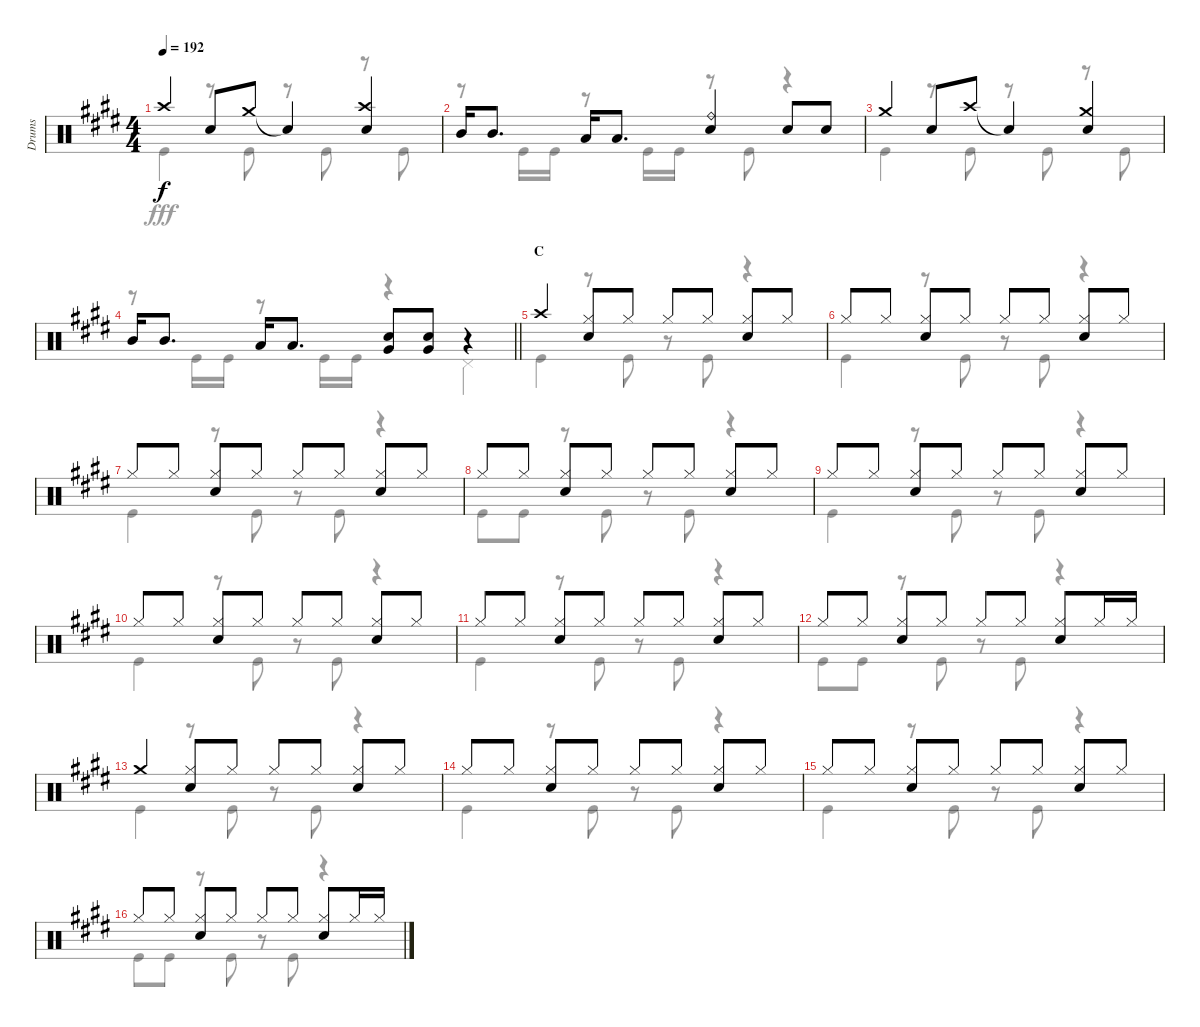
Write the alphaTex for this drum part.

\track ("Drums" "Drums") {instrument percussion}
\staff {score}
\articulation defaults
\voice
\ts (4 4)
\tempo 192
\clef neutral
\ks e "Crash high (hit)".4{dy f} "Snare (hit) 2".8 "Crash medium (hit)".8 "Snare (hit)"{t}.4
("Crash high (hit)" "Snare (hit) 2").4 |
"Mid Tom (hit)".16 "Mid Tom (hit)".8{d} "Low Tom (hit)".16 "Low Tom (hit)".8{d} ("Ride (bell)" "Snare (hit) 2").4 "Snare (hit) 2".8 "Snare (hit) 2".8 |
"Crash medium (hit)".4 "Snare (hit) 2".8 "Crash high (hit)".8 "Snare (hit)"{t}.4 ("Crash medium (hit)" "Snare (hit) 2").4 |
\barLineRight lightlight "Mid Tom (hit)".16 "Mid Tom (hit)".8{d} "Low Tom (hit)".16 "Low Tom (hit)".8{d}
("Snare (hit) 2" "Very Low Tom (hit)").8 ("Snare (hit) 2" "Very Low Tom (hit)").8 r.4 |
\section ("" "C")
"Crash high (hit)".4 ("Hi-Hat (closed)" "Snare (hit) 2").8 "Hi-Hat (closed)".8 "Hi-Hat (closed)".8 "Hi-Hat (closed)".8 ("Hi-Hat (closed)" "Snare (hit) 2").8 "Hi-Hat (closed)".8 |
"Hi-Hat (closed)".8 "Hi-Hat (closed)".8 ("Hi-Hat (closed)" "Snare (hit) 2").8 "Hi-Hat (closed)".8 "Hi-Hat (closed)".8 "Hi-Hat (closed)".8 ("Hi-Hat (closed)" "Snare (hit) 2").8 "Hi-Hat (closed)".8 |
"Hi-Hat (closed)".8 "Hi-Hat (closed)".8 ("Hi-Hat (closed)" "Snare (hit) 2").8 "Hi-Hat (closed)".8 "Hi-Hat (closed)".8 "Hi-Hat (closed)".8 ("Hi-Hat (closed)" "Snare (hit) 2").8 "Hi-Hat (closed)".8 |
"Hi-Hat (closed)".8 "Hi-Hat (closed)".8 ("Hi-Hat (closed)" "Snare (hit) 2").8 "Hi-Hat (closed)".8 "Hi-Hat (closed)".8 "Hi-Hat (closed)".8 ("Hi-Hat (closed)" "Snare (hit) 2").8 "Hi-Hat (closed)".8 |
"Hi-Hat (closed)".8 "Hi-Hat (closed)".8 ("Hi-Hat (closed)" "Snare (hit) 2").8 "Hi-Hat (closed)".8 "Hi-Hat (closed)".8 "Hi-Hat (closed)".8 ("Hi-Hat (closed)" "Snare (hit) 2").8 "Hi-Hat (closed)".8 |
"Hi-Hat (closed)".8 "Hi-Hat (closed)".8 ("Hi-Hat (closed)" "Snare (hit) 2").8 "Hi-Hat (closed)".8 "Hi-Hat (closed)".8 "Hi-Hat (closed)".8 ("Hi-Hat (closed)" "Snare (hit) 2").8 "Hi-Hat (closed)".8 |
"Hi-Hat (closed)".8 "Hi-Hat (closed)".8 ("Hi-Hat (closed)" "Snare (hit) 2").8 "Hi-Hat (closed)".8 "Hi-Hat (closed)".8 "Hi-Hat (closed)".8 ("Hi-Hat (closed)" "Snare (hit) 2").8 "Hi-Hat (closed)".8 |
"Hi-Hat (closed)".8 "Hi-Hat (closed)".8 ("Hi-Hat (closed)" "Snare (hit) 2").8 "Hi-Hat (closed)".8 "Hi-Hat (closed)".8 "Hi-Hat (closed)".8 ("Hi-Hat (closed)" "Snare (hit) 2").8 "Hi-Hat (closed)".16 "Hi-Hat (closed)".16 |
"Crash medium (hit)".4 ("Hi-Hat (closed)" "Snare (hit) 2").8 "Hi-Hat (closed)".8 "Hi-Hat (closed)".8 "Hi-Hat (closed)".8 ("Hi-Hat (closed)" "Snare (hit) 2").8 "Hi-Hat (closed)".8 |
"Hi-Hat (closed)".8 "Hi-Hat (closed)".8 ("Hi-Hat (closed)" "Snare (hit) 2").8 "Hi-Hat (closed)".8 "Hi-Hat (closed)".8 "Hi-Hat (closed)".8 ("Hi-Hat (closed)" "Snare (hit) 2").8 "Hi-Hat (closed)".8 |
"Hi-Hat (closed)".8 "Hi-Hat (closed)".8 ("Hi-Hat (closed)" "Snare (hit) 2").8 "Hi-Hat (closed)".8 "Hi-Hat (closed)".8 "Hi-Hat (closed)".8 ("Hi-Hat (closed)" "Snare (hit) 2").8 "Hi-Hat (closed)".8 |
"Hi-Hat (closed)".8 "Hi-Hat (closed)".8 ("Hi-Hat (closed)" "Snare (hit) 2").8 "Hi-Hat (closed)".8 "Hi-Hat (closed)".8 "Hi-Hat (closed)".8 ("Hi-Hat (closed)" "Snare (hit) 2").8 "Hi-Hat (closed)".16 "Hi-Hat (closed)".16
\voice
\clef neutral
\ottava regular
\simile none
\ks e "Kick (hit)".4{dy fff}
r.8 "Kick (hit)".8 r.8 "Kick (hit)".8 r.8 "Kick (hit)".8 |
r.8 "Kick (hit)".16 "Kick (hit)".16 r.8 "Kick (hit)".16 "Kick (hit)".16 r.8 "Kick (hit)".8 r.4 |
"Kick (hit)".4 r.8 "Kick (hit)".8 r.8 "Kick (hit)".8 r.8 "Kick (hit)".8 |
\barLineRight lightlight
r.8 "Kick (hit)".16 "Kick (hit)".16 r.8 "Kick (hit)".16 "Kick (hit)".16 r.4 "Pedal Hi-Hat (hit)".4 |
"Kick (hit)".4 r.8 "Kick (hit)".8 r.8 "Kick (hit)".8 r.4 |
"Kick (hit)".4 r.8 "Kick (hit)".8 r.8 "Kick (hit)".8 r.4 |
"Kick (hit)".4 r.8 "Kick (hit)".8 r.8 "Kick (hit)".8 r.4 |
"Kick (hit)".8 "Kick (hit)".8 r.8 "Kick (hit)".8 r.8 "Kick (hit)".8 r.4 |
"Kick (hit)".4 r.8 "Kick (hit)".8 r.8 "Kick (hit)".8 r.4 |
"Kick (hit)".4 r.8 "Kick (hit)".8 r.8 "Kick (hit)".8 r.4 |
"Kick (hit)".4 r.8 "Kick (hit)".8 r.8 "Kick (hit)".8 r.4 |
"Kick (hit)".8 "Kick (hit)".8 r.8 "Kick (hit)".8 r.8 "Kick (hit)".8 r.4 |
"Kick (hit)".4 r.8 "Kick (hit)".8 r.8 "Kick (hit)".8 r.4 |
"Kick (hit)".4 r.8 "Kick (hit)".8 r.8 "Kick (hit)".8 r.4 |
"Kick (hit)".4 r.8 "Kick (hit)".8 r.8 "Kick (hit)".8 r.4 |
"Kick (hit)".8 "Kick (hit)".8 r.8 "Kick (hit)".8 r.8 "Kick (hit)".8 r.4
